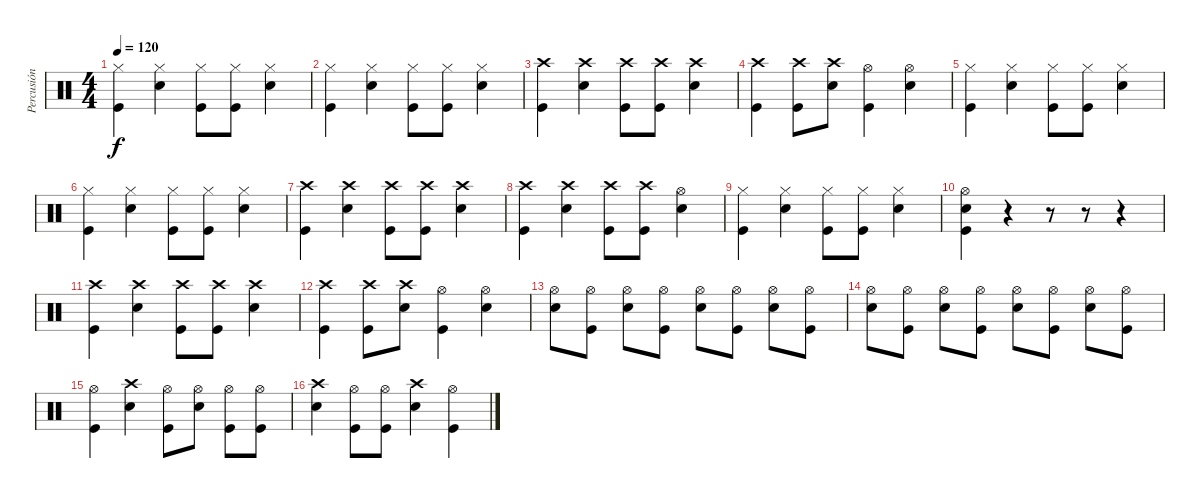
\track ("Percusión" "Percusión") {instrument percussion}
\staff {score}
\articulation defaults
\ts (4 4)
\tempo 120
\clef neutral
\ks c
("Hi-Hat (closed)" "Kick (hit)").4{dy f} ("Hi-Hat (closed)" "Snare (hit) 2").4 ("Hi-Hat (closed)" "Kick (hit)").8 ("Hi-Hat (closed)" "Kick (hit)").8 ("Hi-Hat (closed)" "Snare (hit) 2").4 |
("Hi-Hat (closed)" "Kick (hit)").4 ("Hi-Hat (closed)" "Snare (hit) 2").4 ("Hi-Hat (closed)" "Kick (hit)").8 ("Hi-Hat (closed)" "Kick (hit)").8 ("Hi-Hat (closed)" "Snare (hit) 2").4 |
("Crash high (hit)" "Kick (hit)").4 ("Crash high (hit)" "Snare (hit) 2").4 ("Crash high (hit)" "Kick (hit)").8 ("Crash high (hit)" "Kick (hit)").8 ("Crash high (hit)" "Snare (hit) 2").4 |
("Crash high (hit)" "Kick (hit)").4 ("Crash high (hit)" "Kick (hit)").8 ("Crash high (hit)" "Snare (hit) 2").8 ("Hi-Hat (open)" "Kick (hit)").4 ("Hi-Hat (open)" "Snare (hit) 2").4 |
("Hi-Hat (closed)" "Kick (hit)").4 ("Hi-Hat (closed)" "Snare (hit) 2").4 ("Hi-Hat (closed)" "Kick (hit)").8 ("Hi-Hat (closed)" "Kick (hit)").8 ("Hi-Hat (closed)" "Snare (hit) 2").4 |
("Hi-Hat (closed)" "Kick (hit)").4 ("Hi-Hat (closed)" "Snare (hit) 2").4 ("Hi-Hat (closed)" "Kick (hit)").8 ("Hi-Hat (closed)" "Kick (hit)").8 ("Hi-Hat (closed)" "Snare (hit) 2").4 |
("Crash high (hit)" "Kick (hit)").4 ("Crash high (hit)" "Snare (hit) 2").4 ("Crash high (hit)" "Kick (hit)").8 ("Crash high (hit)" "Kick (hit)").8 ("Crash high (hit)" "Snare (hit) 2").4 |
("Crash high (hit)" "Kick (hit)").4 ("Crash high (hit)" "Snare (hit) 2").4 ("Crash high (hit)" "Kick (hit)").8 ("Crash high (hit)" "Kick (hit)").8 ("Hi-Hat (open)" "Snare (hit) 2").4 |
("Hi-Hat (closed)" "Kick (hit)").4 ("Hi-Hat (closed)" "Snare (hit) 2").4 ("Hi-Hat (closed)" "Kick (hit)").8 ("Hi-Hat (closed)" "Kick (hit)").8 ("Hi-Hat (closed)" "Snare (hit) 2").4 |
("Hi-Hat (open)" "Snare (hit) 2" "Kick (hit)").4 r.4 r.8 r.8 r.4 |
("Crash high (hit)" "Kick (hit)").4 ("Crash high (hit)" "Snare (hit) 2").4 ("Crash high (hit)" "Kick (hit)").8 ("Crash high (hit)" "Kick (hit)").8 ("Crash high (hit)" "Snare (hit) 2").4 |
("Crash high (hit)" "Kick (hit)").4 ("Crash high (hit)" "Kick (hit)").8 ("Crash high (hit)" "Snare (hit) 2").8 ("Hi-Hat (open)" "Kick (hit)").4 ("Hi-Hat (open)" "Snare (hit) 2").4 |
("Hi-Hat (open)" "Snare (hit) 2").8 ("Hi-Hat (open)" "Kick (hit)").8 ("Hi-Hat (open)" "Snare (hit) 2").8 ("Hi-Hat (open)" "Kick (hit)").8 ("Hi-Hat (open)" "Snare (hit) 2").8 ("Hi-Hat (open)" "Kick (hit)").8 ("Hi-Hat (open)" "Snare (hit) 2").8 ("Hi-Hat (open)" "Kick (hit)").8 |
("Hi-Hat (open)" "Snare (hit) 2").8 ("Hi-Hat (open)" "Kick (hit)").8 ("Hi-Hat (open)" "Snare (hit) 2").8 ("Hi-Hat (open)" "Kick (hit)").8 ("Hi-Hat (open)" "Snare (hit) 2").8 ("Hi-Hat (open)" "Kick (hit)").8 ("Hi-Hat (open)" "Snare (hit) 2").8 ("Hi-Hat (open)" "Kick (hit)").8 |
("Hi-Hat (open)" "Kick (hit)").4 ("Crash high (hit)" "Snare (hit) 2").4 ("Hi-Hat (open)" "Kick (hit)").8 ("Hi-Hat (open)" "Snare (hit) 2").8 ("Hi-Hat (open)" "Kick (hit)").8 ("Hi-Hat (open)" "Kick (hit)").8 |
("Crash high (hit)" "Snare (hit) 2").4 ("Hi-Hat (open)" "Kick (hit)").8 ("Hi-Hat (open)" "Kick (hit)").8 ("Crash high (hit)" "Snare (hit) 2").4 ("Hi-Hat (open)" "Kick (hit)").4
